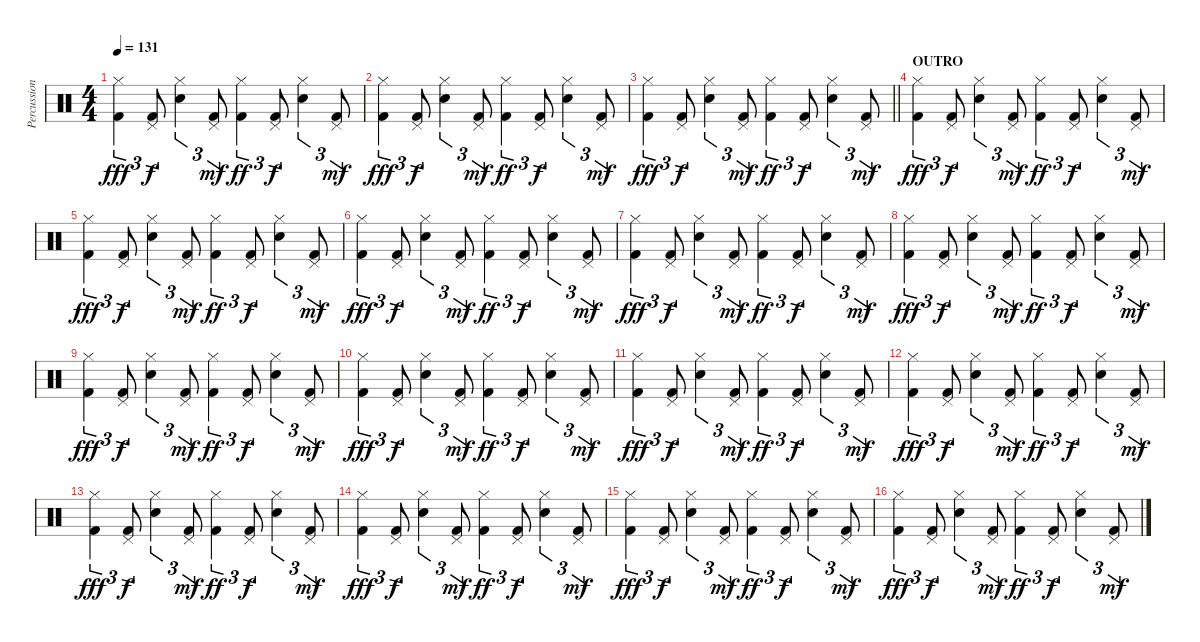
\track ("Percussion" "Percussion") {instrument percussion}
\staff {score}
\articulation defaults
\ts (4 4)
\tempo 131
\clef neutral
\ks c
("Hi-Hat (closed)" "Kick (hit) 2").4{tu (3 2) dy fff} ("Pedal Hi-Hat (hit)" "Kick (hit) 2").8{tu (3 2) dy f} ("Hi-Hat (closed)" "Electric Snare (hit)").4{tu (3 2)} ("Pedal Hi-Hat (hit)" "Kick (hit) 2").8{tu (3 2) dy mf} ("Hi-Hat (closed)" "Kick (hit) 2").4{tu (3 2) dy ff} ("Pedal Hi-Hat (hit)" "Kick (hit) 2").8{tu (3 2) dy f} ("Hi-Hat (closed)" "Electric Snare (hit)").4{tu (3 2)} ("Pedal Hi-Hat (hit)" "Kick (hit) 2").8{tu (3 2) dy mf} |
("Hi-Hat (closed)" "Kick (hit) 2").4{tu (3 2) dy fff} ("Pedal Hi-Hat (hit)" "Kick (hit) 2").8{tu (3 2) dy f} ("Hi-Hat (closed)" "Electric Snare (hit)").4{tu (3 2)} ("Pedal Hi-Hat (hit)" "Kick (hit) 2").8{tu (3 2) dy mf} ("Hi-Hat (closed)" "Kick (hit) 2").4{tu (3 2) dy ff} ("Pedal Hi-Hat (hit)" "Kick (hit) 2").8{tu (3 2) dy f} ("Hi-Hat (closed)" "Electric Snare (hit)").4{tu (3 2)} ("Pedal Hi-Hat (hit)" "Kick (hit) 2").8{tu (3 2) dy mf} |
\barLineRight lightlight
("Hi-Hat (closed)" "Kick (hit) 2").4{tu (3 2) dy fff} ("Pedal Hi-Hat (hit)" "Kick (hit) 2").8{tu (3 2) dy f} ("Hi-Hat (closed)" "Electric Snare (hit)").4{tu (3 2)} ("Pedal Hi-Hat (hit)" "Kick (hit) 2").8{tu (3 2) dy mf} ("Hi-Hat (closed)" "Kick (hit) 2").4{tu (3 2) dy ff} ("Pedal Hi-Hat (hit)" "Kick (hit) 2").8{tu (3 2) dy f} ("Hi-Hat (closed)" "Electric Snare (hit)").4{tu (3 2)} ("Pedal Hi-Hat (hit)" "Kick (hit) 2").8{tu (3 2) dy mf} |
\section ("" "OUTRO")
("Hi-Hat (closed)" "Kick (hit) 2").4{tu (3 2) dy fff} ("Pedal Hi-Hat (hit)" "Kick (hit) 2").8{tu (3 2) dy f} ("Hi-Hat (closed)" "Electric Snare (hit)").4{tu (3 2)} ("Pedal Hi-Hat (hit)" "Kick (hit) 2").8{tu (3 2) dy mf} ("Hi-Hat (closed)" "Kick (hit) 2").4{tu (3 2) dy ff} ("Pedal Hi-Hat (hit)" "Kick (hit) 2").8{tu (3 2) dy f} ("Hi-Hat (closed)" "Electric Snare (hit)").4{tu (3 2)} ("Pedal Hi-Hat (hit)" "Kick (hit) 2").8{tu (3 2) dy mf} |
("Hi-Hat (closed)" "Kick (hit) 2").4{tu (3 2) dy fff} ("Pedal Hi-Hat (hit)" "Kick (hit) 2").8{tu (3 2) dy f} ("Hi-Hat (closed)" "Electric Snare (hit)").4{tu (3 2)} ("Pedal Hi-Hat (hit)" "Kick (hit) 2").8{tu (3 2) dy mf} ("Hi-Hat (closed)" "Kick (hit) 2").4{tu (3 2) dy ff} ("Pedal Hi-Hat (hit)" "Kick (hit) 2").8{tu (3 2) dy f} ("Hi-Hat (closed)" "Electric Snare (hit)").4{tu (3 2)} ("Pedal Hi-Hat (hit)" "Kick (hit) 2").8{tu (3 2) dy mf} |
("Hi-Hat (closed)" "Kick (hit) 2").4{tu (3 2) dy fff} ("Pedal Hi-Hat (hit)" "Kick (hit) 2").8{tu (3 2) dy f} ("Hi-Hat (closed)" "Electric Snare (hit)").4{tu (3 2)} ("Pedal Hi-Hat (hit)" "Kick (hit) 2").8{tu (3 2) dy mf} ("Hi-Hat (closed)" "Kick (hit) 2").4{tu (3 2) dy ff} ("Pedal Hi-Hat (hit)" "Kick (hit) 2").8{tu (3 2) dy f} ("Hi-Hat (closed)" "Electric Snare (hit)").4{tu (3 2)} ("Pedal Hi-Hat (hit)" "Kick (hit) 2").8{tu (3 2) dy mf} |
("Hi-Hat (closed)" "Kick (hit) 2").4{tu (3 2) dy fff} ("Pedal Hi-Hat (hit)" "Kick (hit) 2").8{tu (3 2) dy f} ("Hi-Hat (closed)" "Electric Snare (hit)").4{tu (3 2)} ("Pedal Hi-Hat (hit)" "Kick (hit) 2").8{tu (3 2) dy mf} ("Hi-Hat (closed)" "Kick (hit) 2").4{tu (3 2) dy ff} ("Pedal Hi-Hat (hit)" "Kick (hit) 2").8{tu (3 2) dy f} ("Hi-Hat (closed)" "Electric Snare (hit)").4{tu (3 2)} ("Pedal Hi-Hat (hit)" "Kick (hit) 2").8{tu (3 2) dy mf} |
("Hi-Hat (closed)" "Kick (hit) 2").4{tu (3 2) dy fff} ("Pedal Hi-Hat (hit)" "Kick (hit) 2").8{tu (3 2) dy f} ("Hi-Hat (closed)" "Electric Snare (hit)").4{tu (3 2)} ("Pedal Hi-Hat (hit)" "Kick (hit) 2").8{tu (3 2) dy mf} ("Hi-Hat (closed)" "Kick (hit) 2").4{tu (3 2) dy ff} ("Pedal Hi-Hat (hit)" "Kick (hit) 2").8{tu (3 2) dy f} ("Hi-Hat (closed)" "Electric Snare (hit)").4{tu (3 2)} ("Pedal Hi-Hat (hit)" "Kick (hit) 2").8{tu (3 2) dy mf} |
("Hi-Hat (closed)" "Kick (hit) 2").4{tu (3 2) dy fff} ("Pedal Hi-Hat (hit)" "Kick (hit) 2").8{tu (3 2) dy f} ("Hi-Hat (closed)" "Electric Snare (hit)").4{tu (3 2)} ("Pedal Hi-Hat (hit)" "Kick (hit) 2").8{tu (3 2) dy mf} ("Hi-Hat (closed)" "Kick (hit) 2").4{tu (3 2) dy ff} ("Pedal Hi-Hat (hit)" "Kick (hit) 2").8{tu (3 2) dy f} ("Hi-Hat (closed)" "Electric Snare (hit)").4{tu (3 2)} ("Pedal Hi-Hat (hit)" "Kick (hit) 2").8{tu (3 2) dy mf} |
("Hi-Hat (closed)" "Kick (hit) 2").4{tu (3 2) dy fff} ("Pedal Hi-Hat (hit)" "Kick (hit) 2").8{tu (3 2) dy f} ("Hi-Hat (closed)" "Electric Snare (hit)").4{tu (3 2)} ("Pedal Hi-Hat (hit)" "Kick (hit) 2").8{tu (3 2) dy mf} ("Hi-Hat (closed)" "Kick (hit) 2").4{tu (3 2) dy ff} ("Pedal Hi-Hat (hit)" "Kick (hit) 2").8{tu (3 2) dy f} ("Hi-Hat (closed)" "Electric Snare (hit)").4{tu (3 2)} ("Pedal Hi-Hat (hit)" "Kick (hit) 2").8{tu (3 2) dy mf} |
("Hi-Hat (closed)" "Kick (hit) 2").4{tu (3 2) dy fff} ("Pedal Hi-Hat (hit)" "Kick (hit) 2").8{tu (3 2) dy f} ("Hi-Hat (closed)" "Electric Snare (hit)").4{tu (3 2)} ("Pedal Hi-Hat (hit)" "Kick (hit) 2").8{tu (3 2) dy mf} ("Hi-Hat (closed)" "Kick (hit) 2").4{tu (3 2) dy ff} ("Pedal Hi-Hat (hit)" "Kick (hit) 2").8{tu (3 2) dy f} ("Hi-Hat (closed)" "Electric Snare (hit)").4{tu (3 2)} ("Pedal Hi-Hat (hit)" "Kick (hit) 2").8{tu (3 2) dy mf} |
("Hi-Hat (closed)" "Kick (hit) 2").4{tu (3 2) dy fff} ("Pedal Hi-Hat (hit)" "Kick (hit) 2").8{tu (3 2) dy f} ("Hi-Hat (closed)" "Electric Snare (hit)").4{tu (3 2)} ("Pedal Hi-Hat (hit)" "Kick (hit) 2").8{tu (3 2) dy mf} ("Hi-Hat (closed)" "Kick (hit) 2").4{tu (3 2) dy ff} ("Pedal Hi-Hat (hit)" "Kick (hit) 2").8{tu (3 2) dy f} ("Hi-Hat (closed)" "Electric Snare (hit)").4{tu (3 2)} ("Pedal Hi-Hat (hit)" "Kick (hit) 2").8{tu (3 2) dy mf} |
("Hi-Hat (closed)" "Kick (hit) 2").4{tu (3 2) dy fff} ("Pedal Hi-Hat (hit)" "Kick (hit) 2").8{tu (3 2) dy f} ("Hi-Hat (closed)" "Electric Snare (hit)").4{tu (3 2)} ("Pedal Hi-Hat (hit)" "Kick (hit) 2").8{tu (3 2) dy mf} ("Hi-Hat (closed)" "Kick (hit) 2").4{tu (3 2) dy ff} ("Pedal Hi-Hat (hit)" "Kick (hit) 2").8{tu (3 2) dy f} ("Hi-Hat (closed)" "Electric Snare (hit)").4{tu (3 2)} ("Pedal Hi-Hat (hit)" "Kick (hit) 2").8{tu (3 2) dy mf} |
("Hi-Hat (closed)" "Kick (hit) 2").4{tu (3 2) dy fff} ("Pedal Hi-Hat (hit)" "Kick (hit) 2").8{tu (3 2) dy f} ("Hi-Hat (closed)" "Electric Snare (hit)").4{tu (3 2)} ("Pedal Hi-Hat (hit)" "Kick (hit) 2").8{tu (3 2) dy mf} ("Hi-Hat (closed)" "Kick (hit) 2").4{tu (3 2) dy ff} ("Pedal Hi-Hat (hit)" "Kick (hit) 2").8{tu (3 2) dy f} ("Hi-Hat (closed)" "Electric Snare (hit)").4{tu (3 2)} ("Pedal Hi-Hat (hit)" "Kick (hit) 2").8{tu (3 2) dy mf} |
("Hi-Hat (closed)" "Kick (hit) 2").4{tu (3 2) dy fff} ("Pedal Hi-Hat (hit)" "Kick (hit) 2").8{tu (3 2) dy f} ("Hi-Hat (closed)" "Electric Snare (hit)").4{tu (3 2)} ("Pedal Hi-Hat (hit)" "Kick (hit) 2").8{tu (3 2) dy mf} ("Hi-Hat (closed)" "Kick (hit) 2").4{tu (3 2) dy ff} ("Pedal Hi-Hat (hit)" "Kick (hit) 2").8{tu (3 2) dy f} ("Hi-Hat (closed)" "Electric Snare (hit)").4{tu (3 2)} ("Pedal Hi-Hat (hit)" "Kick (hit) 2").8{tu (3 2) dy mf} |
("Hi-Hat (closed)" "Kick (hit) 2").4{tu (3 2) dy fff} ("Pedal Hi-Hat (hit)" "Kick (hit) 2").8{tu (3 2) dy f} ("Hi-Hat (closed)" "Electric Snare (hit)").4{tu (3 2)} ("Pedal Hi-Hat (hit)" "Kick (hit) 2").8{tu (3 2) dy mf} ("Hi-Hat (closed)" "Kick (hit) 2").4{tu (3 2) dy ff} ("Pedal Hi-Hat (hit)" "Kick (hit) 2").8{tu (3 2) dy f} ("Hi-Hat (closed)" "Electric Snare (hit)").4{tu (3 2)} ("Pedal Hi-Hat (hit)" "Kick (hit) 2").8{tu (3 2) dy mf}
